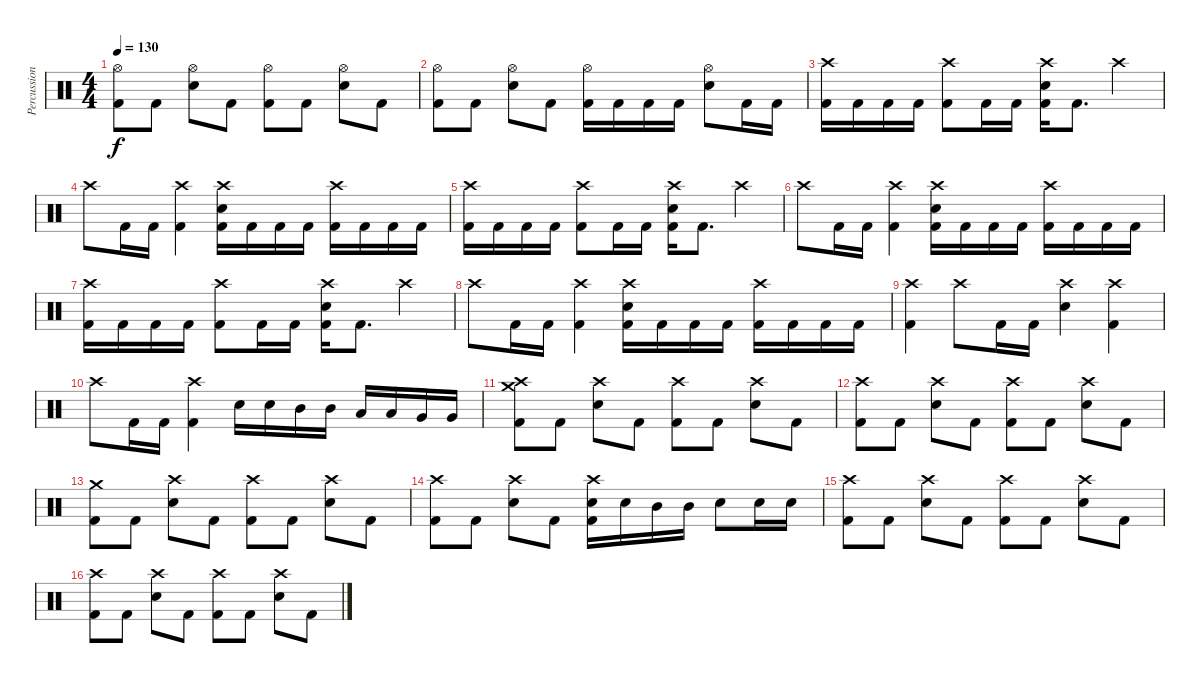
\track ("Percussion" "Percussion") {instrument percussion}
\staff {score}
\articulation defaults
\ts (4 4)
\tempo 130
\clef neutral
\ks c
("Hi-Hat (open)" "Kick (hit) 2").8{dy f} "Kick (hit) 2".8 ("Hi-Hat (open)" "Electric Snare (hit)").8 "Kick (hit) 2".8 ("Hi-Hat (open)" "Kick (hit) 2").8 "Kick (hit) 2".8 ("Hi-Hat (open)" "Electric Snare (hit)").8 "Kick (hit) 2".8 |
("Hi-Hat (open)" "Kick (hit) 2").8 "Kick (hit) 2".8 ("Hi-Hat (open)" "Electric Snare (hit)").8 "Kick (hit) 2".8 ("Hi-Hat (open)" "Kick (hit) 2").16 "Kick (hit) 2".16 "Kick (hit) 2".16 "Kick (hit) 2".16 ("Hi-Hat (open)" "Electric Snare (hit)").8 "Kick (hit) 2".16 "Kick (hit) 2".16 |
("Crash high (hit)" "Kick (hit) 2").16 "Kick (hit) 2".16 "Kick (hit) 2".16 "Kick (hit) 2".16 ("Crash high (hit)" "Kick (hit) 2").8 "Kick (hit) 2".16 "Kick (hit) 2".16 ("Crash high (hit)" "Electric Snare (hit)" "Kick (hit) 2").16 "Kick (hit) 2".8{d} "Crash high (hit)".4 |
"Crash high (hit)".8 "Kick (hit) 2".16 "Kick (hit) 2".16 ("Crash high (hit)" "Kick (hit) 2").4 ("Crash high (hit)" "Electric Snare (hit)" "Kick (hit) 2").16 "Kick (hit) 2".16 "Kick (hit) 2".16 "Kick (hit) 2".16 ("Crash high (hit)" "Kick (hit) 2").16 "Kick (hit) 2".16 "Kick (hit) 2".16 "Kick (hit) 2".16 |
("Crash high (hit)" "Kick (hit) 2").16 "Kick (hit) 2".16 "Kick (hit) 2".16 "Kick (hit) 2".16 ("Crash high (hit)" "Kick (hit) 2").8 "Kick (hit) 2".16 "Kick (hit) 2".16 ("Crash high (hit)" "Electric Snare (hit)" "Kick (hit) 2").16 "Kick (hit) 2".8{d} "Crash high (hit)".4 |
"Crash high (hit)".8 "Kick (hit) 2".16 "Kick (hit) 2".16 ("Crash high (hit)" "Kick (hit) 2").4 ("Crash high (hit)" "Electric Snare (hit)" "Kick (hit) 2").16 "Kick (hit) 2".16 "Kick (hit) 2".16 "Kick (hit) 2".16 ("Crash high (hit)" "Kick (hit) 2").16 "Kick (hit) 2".16 "Kick (hit) 2".16 "Kick (hit) 2".16 |
("Crash high (hit)" "Kick (hit) 2").16 "Kick (hit) 2".16 "Kick (hit) 2".16 "Kick (hit) 2".16 ("Crash high (hit)" "Kick (hit) 2").8 "Kick (hit) 2".16 "Kick (hit) 2".16 ("Crash high (hit)" "Electric Snare (hit)" "Kick (hit) 2").16 "Kick (hit) 2".8{d} "Crash high (hit)".4 |
"Crash high (hit)".8 "Kick (hit) 2".16 "Kick (hit) 2".16 ("Crash high (hit)" "Kick (hit) 2").4 ("Crash high (hit)" "Electric Snare (hit)" "Kick (hit) 2").16 "Kick (hit) 2".16 "Kick (hit) 2".16 "Kick (hit) 2".16 ("Crash high (hit)" "Kick (hit) 2").16 "Kick (hit) 2".16 "Kick (hit) 2".16 "Kick (hit) 2".16 |
("Crash high (hit)" "Kick (hit) 2").4 "Crash high (hit)".8 "Kick (hit) 2".16 "Kick (hit) 2".16 ("Crash high (hit)" "Electric Snare (hit)").4 ("Crash high (hit)" "Kick (hit) 2").4 |
"Crash high (hit)".8 "Kick (hit) 2".16 "Kick (hit) 2".16 ("Crash high (hit)" "Kick (hit) 2").4 "Electric Snare (hit)".16 "Electric Snare (hit)".16 "Mid Tom (hit)".16 "Mid Tom (hit)".16 "Low Tom (hit)".16 "Low Tom (hit)".16 "Very Low Tom (hit)".16 "Very Low Tom (hit)".16 |
("Crash high (hit)" "Crash medium (hit)" "Kick (hit) 2").8 "Kick (hit) 2".8 ("Crash high (hit)" "Electric Snare (hit)").8 "Kick (hit) 2".8 ("Crash high (hit)" "Kick (hit) 2").8 "Kick (hit) 2".8 ("Crash high (hit)" "Electric Snare (hit)").8 "Kick (hit) 2".8 |
("Crash high (hit)" "Kick (hit) 2").8 "Kick (hit) 2".8 ("Crash high (hit)" "Electric Snare (hit)").8 "Kick (hit) 2".8 ("Crash high (hit)" "Kick (hit) 2").8 "Kick (hit) 2".8 ("Crash high (hit)" "Electric Snare (hit)").8 "Kick (hit) 2".8 |
("Crash medium (hit)" "Kick (hit) 2").8 "Kick (hit) 2".8 ("Crash high (hit)" "Electric Snare (hit)").8 "Kick (hit) 2".8 ("Crash high (hit)" "Kick (hit) 2").8 "Kick (hit) 2".8 ("Crash high (hit)" "Electric Snare (hit)").8 "Kick (hit) 2".8 |
("Crash high (hit)" "Kick (hit) 2").8 "Kick (hit) 2".8 ("Crash high (hit)" "Electric Snare (hit)").8 "Kick (hit) 2".8 ("Crash high (hit)" "Electric Snare (hit)" "Kick (hit) 2").16 "Electric Snare (hit)".16 "Mid Tom (hit)".16 "Mid Tom (hit)".16 "Electric Snare (hit)".8 "Electric Snare (hit)".16 "Electric Snare (hit)".16 |
("Crash high (hit)" "Kick (hit) 2").8 "Kick (hit) 2".8 ("Crash high (hit)" "Electric Snare (hit)").8 "Kick (hit) 2".8 ("Crash high (hit)" "Kick (hit) 2").8 "Kick (hit) 2".8 ("Crash high (hit)" "Electric Snare (hit)").8 "Kick (hit) 2".8 |
("Crash high (hit)" "Kick (hit) 2").8 "Kick (hit) 2".8 ("Crash high (hit)" "Electric Snare (hit)").8 "Kick (hit) 2".8 ("Crash high (hit)" "Kick (hit) 2").8 "Kick (hit) 2".8 ("Crash high (hit)" "Electric Snare (hit)").8 "Kick (hit) 2".8
